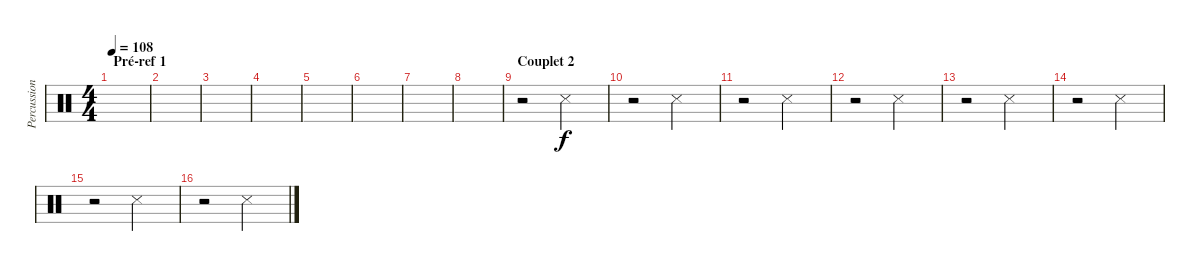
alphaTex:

\track ("Percussions (Porcaro J.)" "Percussion") {instrument percussion}
\staff {score}
\articulation defaults
\ts (4 4)
\section ("" "Pré-ref 1")
\tempo 108
\clef neutral
\ks c
|
|
|
|
|
|
|
|
\section ("" "Couplet 2")
r.2 "Snare (side stick) 3".2 |
r.2 "Snare (side stick) 3".2 |
r.2 "Snare (side stick) 3".2 |
r.2 "Snare (side stick) 3".2 |
r.2 "Snare (side stick) 3".2 |
r.2 "Snare (side stick) 3".2 |
r.2 "Snare (side stick) 3".2 |
r.2 "Snare (side stick) 3".2
